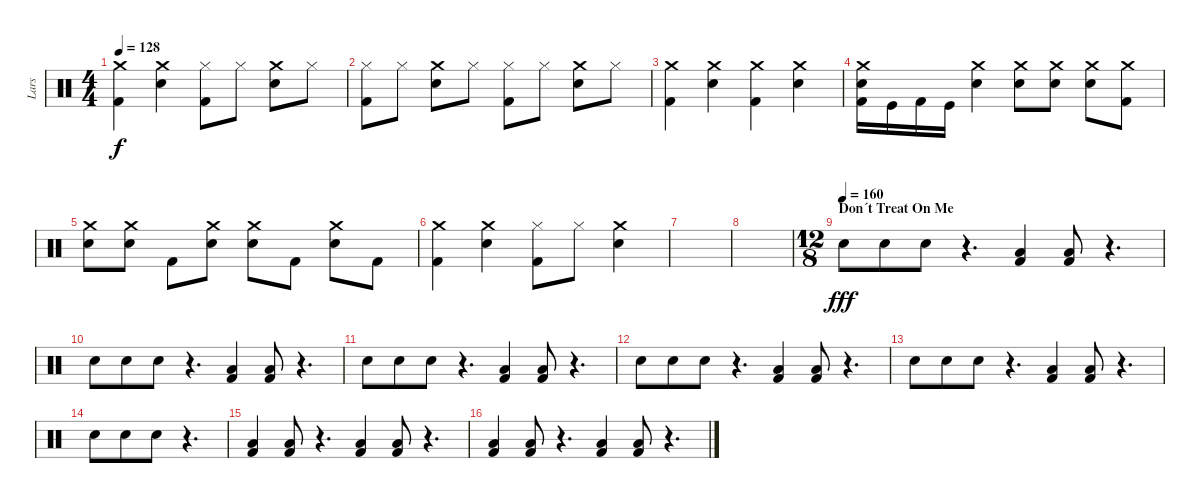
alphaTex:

\track ("Lars" "Lars") {instrument percussion}
\staff {score}
\articulation defaults
\ts (4 4)
\tempo 128
\clef neutral
\ks c
("Crash medium (hit)" "Kick (hit) 2").4{dy f} ("Crash medium (hit)" "Snare (hit) 2").4 ("Kick (hit) 2" "Hi-Hat (closed)").8 "Hi-Hat (closed)".8 ("Crash medium (hit)" "Snare (hit) 2").8 "Hi-Hat (closed)".8 |
("Hi-Hat (closed)" "Kick (hit) 2").8 "Hi-Hat (closed)".8 ("Crash medium (hit)" "Snare (hit) 2").8 "Hi-Hat (closed)".8 ("Hi-Hat (closed)" "Kick (hit) 2").8 "Hi-Hat (closed)".8 ("Crash medium (hit)" "Snare (hit) 2").8 "Hi-Hat (closed)".8 |
("Crash medium (hit)" "Kick (hit) 2").4 ("Crash medium (hit)" "Snare (hit) 2").4 ("Crash medium (hit)" "Kick (hit) 2").4 ("Crash medium (hit)" "Snare (hit) 2").4 |
("Kick (hit) 2" "Snare (hit) 2" "Crash medium (hit)").16 "Kick (hit)".16 "Kick (hit) 2".16 "Kick (hit)".16 ("Snare (hit) 2" "Crash medium (hit)").4 ("Crash medium (hit)" "Snare (hit) 2").8 ("Crash medium (hit)" "Snare (hit) 2").8 ("Crash medium (hit)" "Snare (hit) 2").8 ("Crash medium (hit)" "Kick (hit) 2").8 |
("Snare (hit) 2" "Crash medium (hit)").8 ("Snare (hit) 2" "Crash medium (hit)").8 "Kick (hit) 2".8 ("Crash medium (hit)" "Snare (hit) 2").8 ("Snare (hit) 2" "Crash medium (hit)").8 "Kick (hit) 2".8 ("Snare (hit) 2" "Crash medium (hit)").8 "Kick (hit) 2".8 |
("Crash medium (hit)" "Kick (hit) 2").4 ("Crash medium (hit)" "Snare (hit) 2").4 ("Kick (hit) 2" "Hi-Hat (closed)").8 "Hi-Hat (closed)".8 ("Snare (hit) 2" "Crash medium (hit)").4 |
|
|
\ts (12 8)
\section ("" "Don´t Treat On Me")
\tempo (160)
"Electric Snare (hit)".8{dy fff} "Electric Snare (hit)".8 "Electric Snare (hit)".8 r.4{d} ("Low Floor Tom (hit)" "Kick (hit) 2").4 ("Low Floor Tom (hit)" "Kick (hit) 2").8 r.4{d} |
"Electric Snare (hit)".8 "Electric Snare (hit)".8 "Electric Snare (hit)".8 r.4{d} ("Low Floor Tom (hit)" "Kick (hit) 2").4 ("Low Floor Tom (hit)" "Kick (hit) 2").8 r.4{d} |
"Electric Snare (hit)".8 "Electric Snare (hit)".8 "Electric Snare (hit)".8 r.4{d} ("Low Floor Tom (hit)" "Kick (hit) 2").4 ("Low Floor Tom (hit)" "Kick (hit) 2").8 r.4{d} |
"Electric Snare (hit)".8 "Electric Snare (hit)".8 "Electric Snare (hit)".8 r.4{d} ("Low Floor Tom (hit)" "Kick (hit) 2").4 ("Low Floor Tom (hit)" "Kick (hit) 2").8 r.4{d} |
"Electric Snare (hit)".8 "Electric Snare (hit)".8 "Electric Snare (hit)".8 r.4{d} ("Low Floor Tom (hit)" "Kick (hit) 2").4 ("Low Floor Tom (hit)" "Kick (hit) 2").8 r.4{d} |
"Electric Snare (hit)".8 "Electric Snare (hit)".8 "Electric Snare (hit)".8 r.4{d} |
("Low Floor Tom (hit)" "Kick (hit) 2").4 ("Low Floor Tom (hit)" "Kick (hit) 2").8 r.4{d} ("Low Floor Tom (hit)" "Kick (hit) 2").4 ("Low Floor Tom (hit)" "Kick (hit) 2").8 r.4{d} |
("Low Floor Tom (hit)" "Kick (hit) 2").4 ("Low Floor Tom (hit)" "Kick (hit) 2").8 r.4{d} ("Low Floor Tom (hit)" "Kick (hit) 2").4 ("Low Floor Tom (hit)" "Kick (hit) 2").8 r.4{d}
